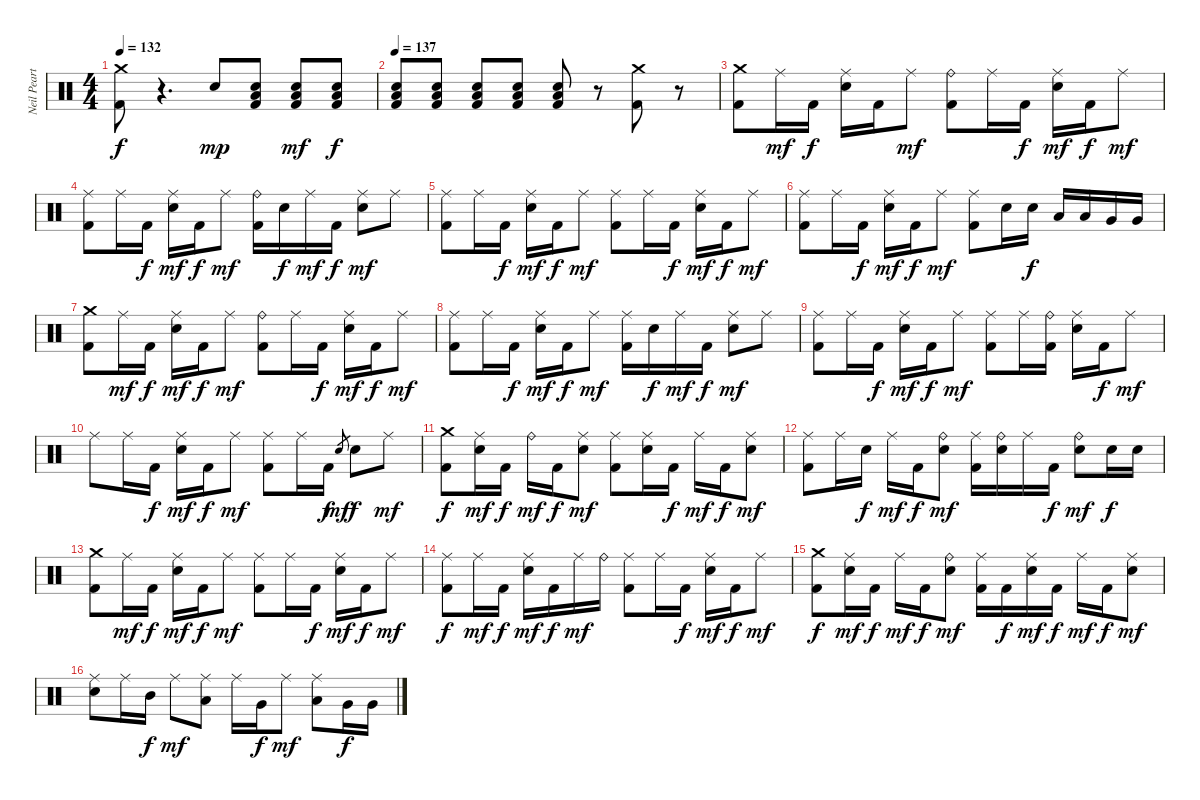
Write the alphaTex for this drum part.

\track ("Neil Peart, Percusión" "Neil Peart") {instrument percussion}
\staff {score}
\articulation defaults
\ts (4 4)
\tempo 132
\clef neutral
\ks c
("Crash medium (hit)" "Kick (hit) 2").8{dy f} r.4{d} "Electric Snare (hit)".8{dy mp} ("Electric Snare (hit)" "Low Floor Tom (hit)" "Kick (hit) 2").8 ("Electric Snare (hit)" "Low Floor Tom (hit)" "Kick (hit) 2").8{dy mf} ("Electric Snare (hit)" "Low Floor Tom (hit)" "Kick (hit) 2").8{dy f} |
\tempo 137
("Electric Snare (hit)" "Low Floor Tom (hit)" "Kick (hit) 2").8 ("Electric Snare (hit)" "Low Floor Tom (hit)" "Kick (hit) 2").8 ("Electric Snare (hit)" "Low Floor Tom (hit)" "Kick (hit) 2").8 ("Electric Snare (hit)" "Low Floor Tom (hit)" "Kick (hit) 2").8 ("Electric Snare (hit)" "Low Floor Tom (hit)" "Kick (hit) 2").8 r.8 ("Crash medium (hit)" "Kick (hit) 2").8 r.8 |
("Crash medium (hit)" "Kick (hit) 2").8 "Ride (middle)".16{dy mf} "Kick (hit) 2".16{dy f} ("Ride (middle)" "Electric Snare (hit)").16 "Kick (hit) 2".16 "Ride (middle)".8{dy mf} ("Ride (bell)" "Kick (hit) 2").8 "Ride (middle)".16 "Kick (hit) 2".16{dy f} ("Ride (middle)" "Electric Snare (hit)").16{dy mf} "Kick (hit) 2".16{dy f} "Ride (middle)".8{dy mf} |
("Ride (middle)" "Kick (hit) 2").8 "Ride (middle)".16 "Kick (hit) 2".16{dy f} ("Ride (middle)" "Electric Snare (hit)").16{dy mf} "Kick (hit) 2".16{dy f} "Ride (middle)".8{dy mf} ("Ride (bell)" "Kick (hit) 2").16 "Electric Snare (hit)".16{dy f} "Ride (middle)".16{dy mf} "Kick (hit) 2".16{dy f} ("Ride (middle)" "Electric Snare (hit)").8{dy mf} "Ride (middle)".8 |
("Ride (middle)" "Kick (hit) 2").8 "Ride (middle)".16 "Kick (hit) 2".16{dy f} ("Ride (middle)" "Electric Snare (hit)").16{dy mf} "Kick (hit) 2".16{dy f} "Ride (middle)".8{dy mf} ("Ride (middle)" "Kick (hit) 2").8 "Ride (middle)".16 "Kick (hit) 2".16{dy f} ("Ride (middle)" "Electric Snare (hit)").16{dy mf} "Kick (hit) 2".16{dy f} "Ride (middle)".8{dy mf} |
("Ride (middle)" "Kick (hit) 2").8 "Ride (middle)".16 "Kick (hit) 2".16{dy f} ("Ride (middle)" "Electric Snare (hit)").16{dy mf} "Kick (hit) 2".16{dy f} "Ride (middle)".8{dy mf} ("Ride (middle)" "Kick (hit) 2").8 "Electric Snare (hit)".16 "Electric Snare (hit)".16{dy f} "Low Tom (hit)".16 "Low Tom (hit)".16 "Very Low Tom (hit)".16 "Very Low Tom (hit)".16 |
("Crash medium (hit)" "Kick (hit) 2").8 "Ride (middle)".16{dy mf} "Kick (hit) 2".16{dy f} ("Ride (middle)" "Electric Snare (hit)").16{dy mf} "Kick (hit) 2".16{dy f} "Ride (middle)".8{dy mf} ("Ride (bell)" "Kick (hit) 2").8 "Ride (middle)".16 "Kick (hit) 2".16{dy f} ("Ride (middle)" "Electric Snare (hit)").16{dy mf} "Kick (hit) 2".16{dy f} "Ride (middle)".8{dy mf} |
("Ride (middle)" "Kick (hit) 2").8 "Ride (middle)".16 "Kick (hit) 2".16{dy f} ("Ride (middle)" "Electric Snare (hit)").16{dy mf} "Kick (hit) 2".16{dy f} "Ride (middle)".8{dy mf} ("Ride (middle)" "Kick (hit) 2").16 "Electric Snare (hit)".16{dy f} "Ride (middle)".16{dy mf} "Kick (hit) 2".16{dy f} ("Ride (middle)" "Electric Snare (hit)").8{dy mf} "Ride (middle)".8 |
("Ride (middle)" "Kick (hit) 2").8 "Ride (middle)".16 "Kick (hit) 2".16{dy f} ("Ride (middle)" "Electric Snare (hit)").16{dy mf} "Kick (hit) 2".16{dy f} "Ride (middle)".8{dy mf} ("Ride (middle)" "Kick (hit) 2").8 "Ride (middle)".16 ("Ride (bell)" "Kick (hit) 2").16 ("Ride (middle)" "Electric Snare (hit)").16 "Kick (hit) 2".16{dy f} "Ride (middle)".8{dy mf} |
"Ride (middle)".8 "Ride (middle)".16 "Kick (hit) 2".16{dy f} ("Ride (middle)" "Electric Snare (hit)").16{dy mf} "Kick (hit) 2".16{dy f} "Ride (middle)".8{dy mf} ("Ride (middle)" "Kick (hit) 2").8 "Ride (middle)".16 "Kick (hit) 2".16{dy f} "Electric Snare (hit)".8{gr dy mf} "Electric Snare (hit)".8{dy f} "Ride (middle)".8{dy mf} |
("Crash medium (hit)" "Kick (hit) 2").8{dy f} ("Ride (middle)" "Electric Snare (hit)").16{dy mf} "Kick (hit) 2".16{dy f} "Ride (bell)".16{dy mf} "Kick (hit) 2".16{dy f} ("Ride (middle)" "Electric Snare (hit)").8{dy mf} ("Ride (middle)" "Kick (hit) 2").8 ("Ride (middle)" "Electric Snare (hit)").16 "Kick (hit) 2".16{dy f} "Ride (middle)".16{dy mf} "Kick (hit) 2".16{dy f} ("Ride (middle)" "Electric Snare (hit)").8{dy mf} |
("Ride (middle)" "Kick (hit) 2").8 "Ride (middle)".16 "Electric Snare (hit)".16{dy f} "Ride (middle)".16{dy mf} "Kick (hit) 2".16{dy f} ("Ride (bell)" "Electric Snare (hit)").8{dy mf} ("Ride (middle)" "Kick (hit) 2").16 ("Ride (bell)" "Electric Snare (hit)").16 "Ride (middle)".16 "Kick (hit) 2".16{dy f} ("Ride (bell)" "Electric Snare (hit)").8{dy mf} "Electric Snare (hit)".16{dy f} "Electric Snare (hit)".16 |
("Crash medium (hit)" "Kick (hit) 2").8 "Ride (middle)".16{dy mf} "Kick (hit) 2".16{dy f} ("Ride (middle)" "Electric Snare (hit)").16{dy mf} "Kick (hit) 2".16{dy f} "Ride (middle)".8{dy mf} ("Ride (middle)" "Kick (hit) 2").8 "Ride (middle)".16 "Kick (hit) 2".16{dy f} ("Ride (middle)" "Electric Snare (hit)").16{dy mf} "Kick (hit) 2".16{dy f} "Ride (middle)".8{dy mf} |
("Ride (middle)" "Kick (hit) 2").8{dy f} "Ride (middle)".16{dy mf} "Kick (hit) 2".16{dy f} ("Ride (middle)" "Electric Snare (hit)").16{dy mf} "Kick (hit) 2".16{dy f} "Ride (middle)".16{dy mf} "Ride (bell)".16 ("Ride (middle)" "Kick (hit) 2").8 "Ride (middle)".16 "Kick (hit) 2".16{dy f} ("Ride (middle)" "Electric Snare (hit)").16{dy mf} "Kick (hit) 2".16{dy f} "Ride (middle)".8{dy mf} |
("Crash medium (hit)" "Kick (hit) 2").8{dy f} ("Ride (middle)" "Electric Snare (hit)").16{dy mf} "Kick (hit) 2".16{dy f} "Ride (middle)".16{dy mf} "Kick (hit) 2".16{dy f} ("Ride (bell)" "Electric Snare (hit)").8{dy mf} ("Ride (middle)" "Kick (hit) 2").16 "Kick (hit) 2".16{dy f} ("Ride (middle)" "Electric Snare (hit)").16{dy mf} "Kick (hit) 2".16{dy f} "Ride (middle)".16{dy mf} "Kick (hit) 2".16{dy f} ("Ride (middle)" "Electric Snare (hit)").8{dy mf} |
("Ride (middle)" "Electric Snare (hit)").8 "Ride (middle)".16 "Mid Tom (hit)".16{dy f} "Ride (middle)".8{dy mf} ("Ride (middle)" "Low Tom (hit)").8 "Ride (middle)".16 "Very Low Tom (hit)".16{dy f} "Ride (middle)".8{dy mf} ("Ride (middle)" "Low Floor Tom (hit)").8 "Very Low Tom (hit)".16{dy f} "Very Low Tom (hit)".16
